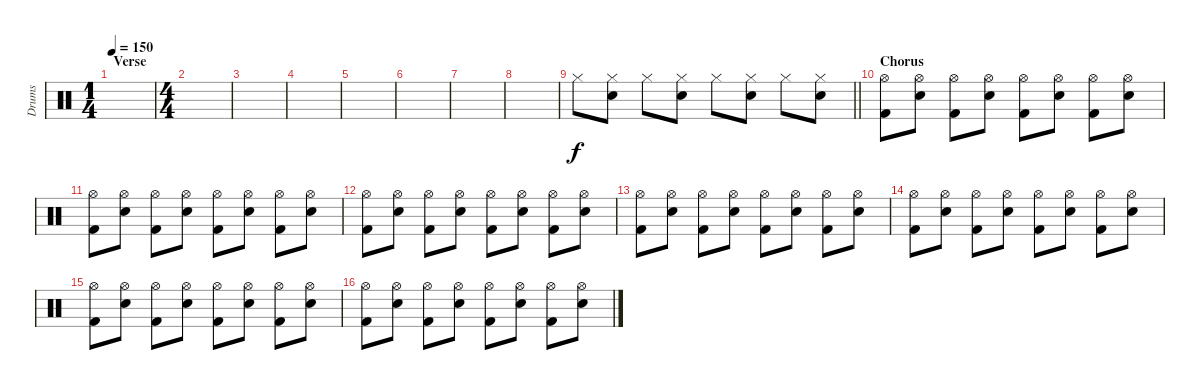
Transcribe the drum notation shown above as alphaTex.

\track ("Drums" "Drums") {instrument percussion}
\staff {score}
\articulation defaults
\ts (1 4)
\section ("" "Verse")
\tempo 150
\clef neutral
\ks c
|
\ts (4 4)
|
|
|
|
|
|
|
\barLineRight lightlight "Hi-Hat (closed)".8
("Hi-Hat (closed)" "Snare (hit) 2").8 "Hi-Hat (closed)".8 ("Hi-Hat (closed)" "Snare (hit) 2").8 "Hi-Hat (closed)".8 ("Hi-Hat (closed)" "Snare (hit) 2").8 "Hi-Hat (closed)".8 ("Hi-Hat (closed)" "Snare (hit) 2").8 |
\section ("" "Chorus")
("Hi-Hat (open)" "Kick (hit) 2").8 ("Hi-Hat (open)" "Snare (hit) 2").8 ("Hi-Hat (open)" "Kick (hit) 2").8 ("Hi-Hat (open)" "Snare (hit) 2").8 ("Hi-Hat (open)" "Kick (hit) 2").8 ("Hi-Hat (open)" "Snare (hit) 2").8 ("Hi-Hat (open)" "Kick (hit) 2").8 ("Hi-Hat (open)" "Snare (hit) 2").8 |
("Hi-Hat (open)" "Kick (hit) 2").8 ("Hi-Hat (open)" "Snare (hit) 2").8 ("Hi-Hat (open)" "Kick (hit) 2").8 ("Hi-Hat (open)" "Snare (hit) 2").8 ("Hi-Hat (open)" "Kick (hit) 2").8 ("Hi-Hat (open)" "Snare (hit) 2").8 ("Hi-Hat (open)" "Kick (hit) 2").8 ("Hi-Hat (open)" "Snare (hit) 2").8 |
("Hi-Hat (open)" "Kick (hit) 2").8 ("Hi-Hat (open)" "Snare (hit) 2").8 ("Hi-Hat (open)" "Kick (hit) 2").8 ("Hi-Hat (open)" "Snare (hit) 2").8 ("Hi-Hat (open)" "Kick (hit) 2").8 ("Hi-Hat (open)" "Snare (hit) 2").8 ("Hi-Hat (open)" "Kick (hit) 2").8 ("Hi-Hat (open)" "Snare (hit) 2").8 |
("Hi-Hat (open)" "Kick (hit) 2").8 ("Hi-Hat (open)" "Snare (hit) 2").8 ("Hi-Hat (open)" "Kick (hit) 2").8 ("Hi-Hat (open)" "Snare (hit) 2").8 ("Hi-Hat (open)" "Kick (hit) 2").8 ("Hi-Hat (open)" "Snare (hit) 2").8 ("Hi-Hat (open)" "Kick (hit) 2").8 ("Hi-Hat (open)" "Snare (hit) 2").8 |
("Hi-Hat (open)" "Kick (hit) 2").8 ("Hi-Hat (open)" "Snare (hit) 2").8 ("Hi-Hat (open)" "Kick (hit) 2").8 ("Hi-Hat (open)" "Snare (hit) 2").8 ("Hi-Hat (open)" "Kick (hit) 2").8 ("Hi-Hat (open)" "Snare (hit) 2").8 ("Hi-Hat (open)" "Kick (hit) 2").8 ("Hi-Hat (open)" "Snare (hit) 2").8 |
("Hi-Hat (open)" "Kick (hit) 2").8 ("Hi-Hat (open)" "Snare (hit) 2").8 ("Hi-Hat (open)" "Kick (hit) 2").8 ("Hi-Hat (open)" "Snare (hit) 2").8 ("Hi-Hat (open)" "Kick (hit) 2").8 ("Hi-Hat (open)" "Snare (hit) 2").8 ("Hi-Hat (open)" "Kick (hit) 2").8 ("Hi-Hat (open)" "Snare (hit) 2").8 |
("Hi-Hat (open)" "Kick (hit) 2").8 ("Hi-Hat (open)" "Snare (hit) 2").8 ("Hi-Hat (open)" "Kick (hit) 2").8 ("Hi-Hat (open)" "Snare (hit) 2").8 ("Hi-Hat (open)" "Kick (hit) 2").8 ("Hi-Hat (open)" "Snare (hit) 2").8 ("Hi-Hat (open)" "Kick (hit) 2").8 ("Hi-Hat (open)" "Snare (hit) 2").8
